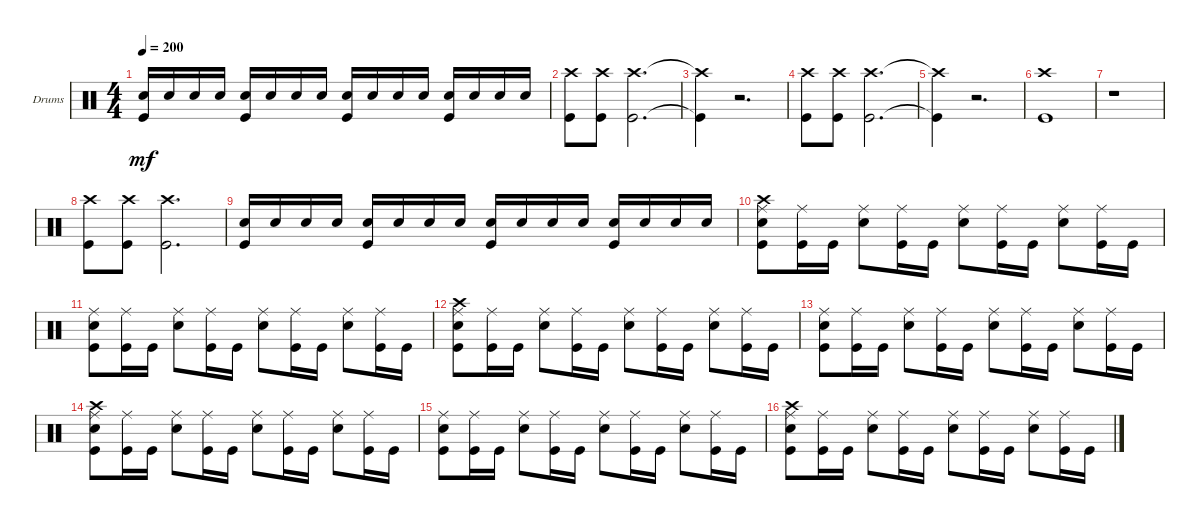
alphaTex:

\bracketExtendMode groupsimilarinstruments
\firstSystemTrackNameOrientation horizontal
\otherSystemsTrackNameOrientation horizontal
\track ("Drums" "Drums") {instrument percussion}
\staff {score}
\articulation defaults
\ts (4 4)
\tempo 200
\clef neutral
\ks c
("Kick (hit)" "Snare (hit) 2").16{dy mf} "Snare (hit) 2".16 "Snare (hit) 2".16 "Snare (hit) 2".16 ("Kick (hit)" "Snare (hit) 2").16 "Snare (hit) 2".16 "Snare (hit) 2".16 "Snare (hit) 2".16 ("Kick (hit)" "Snare (hit) 2").16 "Snare (hit) 2".16 "Snare (hit) 2".16 "Snare (hit) 2".16 ("Kick (hit)" "Snare (hit) 2").16 "Snare (hit) 2".16 "Snare (hit) 2".16 "Snare (hit) 2".16 |
("Kick (hit)" "Crash high (hit)").8 ("Kick (hit)" "Crash high (hit)").8 ("Kick (hit)" "Crash high (hit)").2{d} |
("Kick (hit)"{t} "Crash high (hit)"{t}).4 r.2{d} |
("Kick (hit)" "Crash high (hit)").8 ("Kick (hit)" "Crash high (hit)").8 ("Kick (hit)" "Crash high (hit)").2{d} |
("Kick (hit)"{t} "Crash high (hit)"{t}).4 r.2{d} |
("Kick (hit)" "Crash high (hit)").1 |
r.1 |
("Kick (hit)" "Crash high (hit)").8 ("Kick (hit)" "Crash high (hit)").8 ("Kick (hit)" "Crash high (hit)").2{d} |
("Kick (hit)" "Snare (hit) 2").16 "Snare (hit) 2".16 "Snare (hit) 2".16 "Snare (hit) 2".16 ("Kick (hit)" "Snare (hit) 2").16 "Snare (hit) 2".16 "Snare (hit) 2".16 "Snare (hit) 2".16 ("Kick (hit)" "Snare (hit) 2").16 "Snare (hit) 2".16 "Snare (hit) 2".16 "Snare (hit) 2".16 ("Kick (hit)" "Snare (hit) 2").16 "Snare (hit) 2".16 "Snare (hit) 2".16 "Snare (hit) 2".16 |
("Kick (hit)" "Snare (hit) 2" "Ride (middle)" "Crash high (hit)").8 ("Kick (hit)" "Ride (middle)").16 "Kick (hit)".16 ("Snare (hit) 2" "Ride (middle)").8 ("Kick (hit)" "Ride (middle)").16 "Kick (hit)".16 ("Snare (hit) 2" "Ride (middle)").8 ("Kick (hit)" "Ride (middle)").16 "Kick (hit)".16 ("Snare (hit) 2" "Ride (middle)").8 ("Kick (hit)" "Ride (middle)").16 "Kick (hit)".16 |
("Kick (hit)" "Snare (hit) 2" "Ride (middle)").8 ("Kick (hit)" "Ride (middle)").16 "Kick (hit)".16 ("Snare (hit) 2" "Ride (middle)").8 ("Kick (hit)" "Ride (middle)").16 "Kick (hit)".16 ("Snare (hit) 2" "Ride (middle)").8 ("Kick (hit)" "Ride (middle)").16 "Kick (hit)".16 ("Snare (hit) 2" "Ride (middle)").8 ("Kick (hit)" "Ride (middle)").16 "Kick (hit)".16 |
("Kick (hit)" "Snare (hit) 2" "Ride (middle)" "Crash high (hit)").8 ("Kick (hit)" "Ride (middle)").16 "Kick (hit)".16 ("Snare (hit) 2" "Ride (middle)").8 ("Kick (hit)" "Ride (middle)").16 "Kick (hit)".16 ("Snare (hit) 2" "Ride (middle)").8 ("Kick (hit)" "Ride (middle)").16 "Kick (hit)".16 ("Snare (hit) 2" "Ride (middle)").8 ("Kick (hit)" "Ride (middle)").16 "Kick (hit)".16 |
("Kick (hit)" "Snare (hit) 2" "Ride (middle)").8 ("Kick (hit)" "Ride (middle)").16 "Kick (hit)".16 ("Snare (hit) 2" "Ride (middle)").8 ("Kick (hit)" "Ride (middle)").16 "Kick (hit)".16 ("Snare (hit) 2" "Ride (middle)").8 ("Kick (hit)" "Ride (middle)").16 "Kick (hit)".16 ("Snare (hit) 2" "Ride (middle)").8 ("Kick (hit)" "Ride (middle)").16 "Kick (hit)".16 |
("Kick (hit)" "Snare (hit) 2" "Ride (middle)" "Crash high (hit)").8 ("Kick (hit)" "Ride (middle)").16 "Kick (hit)".16 ("Snare (hit) 2" "Ride (middle)").8 ("Kick (hit)" "Ride (middle)").16 "Kick (hit)".16 ("Snare (hit) 2" "Ride (middle)").8 ("Kick (hit)" "Ride (middle)").16 "Kick (hit)".16 ("Snare (hit) 2" "Ride (middle)").8 ("Kick (hit)" "Ride (middle)").16 "Kick (hit)".16 |
("Kick (hit)" "Snare (hit) 2" "Ride (middle)").8 ("Kick (hit)" "Ride (middle)").16 "Kick (hit)".16 ("Snare (hit) 2" "Ride (middle)").8 ("Kick (hit)" "Ride (middle)").16 "Kick (hit)".16 ("Snare (hit) 2" "Ride (middle)").8 ("Kick (hit)" "Ride (middle)").16 "Kick (hit)".16 ("Snare (hit) 2" "Ride (middle)").8 ("Kick (hit)" "Ride (middle)").16 "Kick (hit)".16 |
("Kick (hit)" "Snare (hit) 2" "Ride (middle)" "Crash high (hit)").8 ("Kick (hit)" "Ride (middle)").16 "Kick (hit)".16 ("Snare (hit) 2" "Ride (middle)").8 ("Kick (hit)" "Ride (middle)").16 "Kick (hit)".16 ("Snare (hit) 2" "Ride (middle)").8 ("Kick (hit)" "Ride (middle)").16 "Kick (hit)".16 ("Snare (hit) 2" "Ride (middle)").8 ("Kick (hit)" "Ride (middle)").16 "Kick (hit)".16
